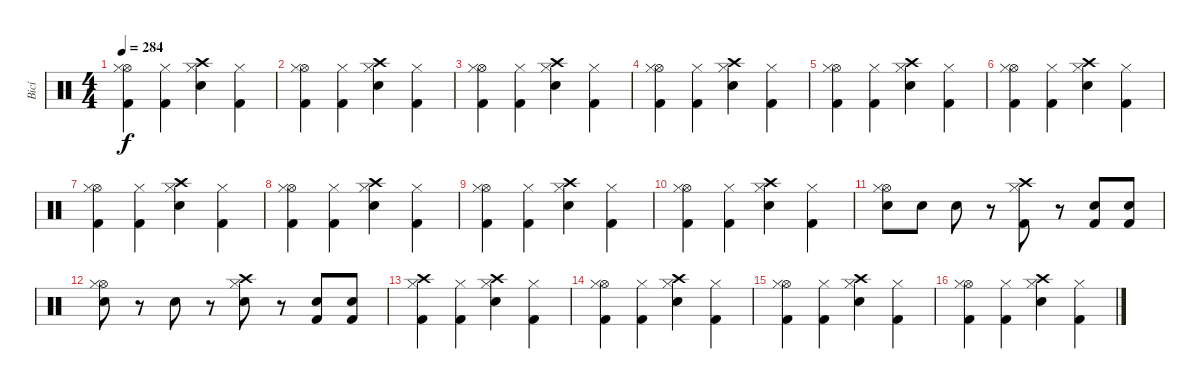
\track ("Bicí" "Bicí") {instrument percussion}
\staff {score}
\articulation defaults
\ts (4 4)
\tempo 284
\clef neutral
\ks c
("Hi-Hat (open)" "Hi-Hat (closed)" "Kick (hit) 2").4{dy f} ("Hi-Hat (closed)" "Kick (hit) 2").4 ("Crash high (hit)" "Hi-Hat (closed)" "Electric Snare (hit)").4 ("Hi-Hat (closed)" "Kick (hit) 2").4 |
("Hi-Hat (open)" "Hi-Hat (closed)" "Kick (hit) 2").4 ("Hi-Hat (closed)" "Kick (hit) 2").4 ("Crash high (hit)" "Hi-Hat (closed)" "Electric Snare (hit)").4 ("Hi-Hat (closed)" "Kick (hit) 2").4 |
("Hi-Hat (open)" "Hi-Hat (closed)" "Kick (hit) 2").4 ("Hi-Hat (closed)" "Kick (hit) 2").4 ("Crash high (hit)" "Hi-Hat (closed)" "Electric Snare (hit)").4 ("Hi-Hat (closed)" "Kick (hit) 2").4 |
("Hi-Hat (open)" "Hi-Hat (closed)" "Kick (hit) 2").4 ("Hi-Hat (closed)" "Kick (hit) 2").4 ("Crash high (hit)" "Hi-Hat (closed)" "Electric Snare (hit)").4 ("Hi-Hat (closed)" "Kick (hit) 2").4 |
("Hi-Hat (open)" "Hi-Hat (closed)" "Kick (hit) 2").4 ("Hi-Hat (closed)" "Kick (hit) 2").4 ("Crash high (hit)" "Hi-Hat (closed)" "Electric Snare (hit)").4 ("Hi-Hat (closed)" "Kick (hit) 2").4 |
("Hi-Hat (open)" "Hi-Hat (closed)" "Kick (hit) 2").4 ("Hi-Hat (closed)" "Kick (hit) 2").4 ("Crash high (hit)" "Hi-Hat (closed)" "Electric Snare (hit)").4 ("Hi-Hat (closed)" "Kick (hit) 2").4 |
("Hi-Hat (open)" "Hi-Hat (closed)" "Kick (hit) 2").4 ("Hi-Hat (closed)" "Kick (hit) 2").4 ("Crash high (hit)" "Hi-Hat (closed)" "Electric Snare (hit)").4 ("Hi-Hat (closed)" "Kick (hit) 2").4 |
("Hi-Hat (open)" "Hi-Hat (closed)" "Kick (hit) 2").4 ("Hi-Hat (closed)" "Kick (hit) 2").4 ("Crash high (hit)" "Hi-Hat (closed)" "Electric Snare (hit)").4 ("Hi-Hat (closed)" "Kick (hit) 2").4 |
("Hi-Hat (open)" "Hi-Hat (closed)" "Kick (hit) 2").4 ("Hi-Hat (closed)" "Kick (hit) 2").4 ("Crash high (hit)" "Hi-Hat (closed)" "Electric Snare (hit)").4 ("Hi-Hat (closed)" "Kick (hit) 2").4 |
("Hi-Hat (open)" "Hi-Hat (closed)" "Kick (hit) 2").4 ("Hi-Hat (closed)" "Kick (hit) 2").4 ("Crash high (hit)" "Hi-Hat (closed)" "Electric Snare (hit)").4 ("Hi-Hat (closed)" "Kick (hit) 2").4 |
("Hi-Hat (open)" "Hi-Hat (closed)" "Electric Snare (hit)").8 "Electric Snare (hit)".8 "Electric Snare (hit)".8 r.8 ("Crash high (hit)" "Hi-Hat (closed)" "Kick (hit) 2").8 r.8 ("Electric Snare (hit)" "Kick (hit) 2").8 ("Electric Snare (hit)" "Kick (hit) 2").8 |
("Hi-Hat (open)" "Hi-Hat (closed)" "Electric Snare (hit)").8 r.8 "Electric Snare (hit)".8 r.8 ("Crash high (hit)" "Hi-Hat (closed)" "Electric Snare (hit)").8 r.8 ("Electric Snare (hit)" "Kick (hit) 2").8 ("Electric Snare (hit)" "Kick (hit) 2").8 |
("Crash high (hit)" "Hi-Hat (closed)" "Kick (hit) 2").4 ("Hi-Hat (closed)" "Kick (hit) 2").4 ("Crash high (hit)" "Hi-Hat (closed)" "Electric Snare (hit)").4 ("Hi-Hat (closed)" "Kick (hit) 2").4 |
("Hi-Hat (open)" "Hi-Hat (closed)" "Kick (hit) 2").4 ("Hi-Hat (closed)" "Kick (hit) 2").4 ("Crash high (hit)" "Hi-Hat (closed)" "Electric Snare (hit)").4 ("Hi-Hat (closed)" "Kick (hit) 2").4 |
("Hi-Hat (open)" "Hi-Hat (closed)" "Kick (hit) 2").4 ("Hi-Hat (closed)" "Kick (hit) 2").4 ("Crash high (hit)" "Hi-Hat (closed)" "Electric Snare (hit)").4 ("Hi-Hat (closed)" "Kick (hit) 2").4 |
("Hi-Hat (open)" "Hi-Hat (closed)" "Kick (hit) 2").4 ("Hi-Hat (closed)" "Kick (hit) 2").4 ("Crash high (hit)" "Hi-Hat (closed)" "Electric Snare (hit)").4 ("Hi-Hat (closed)" "Kick (hit) 2").4
